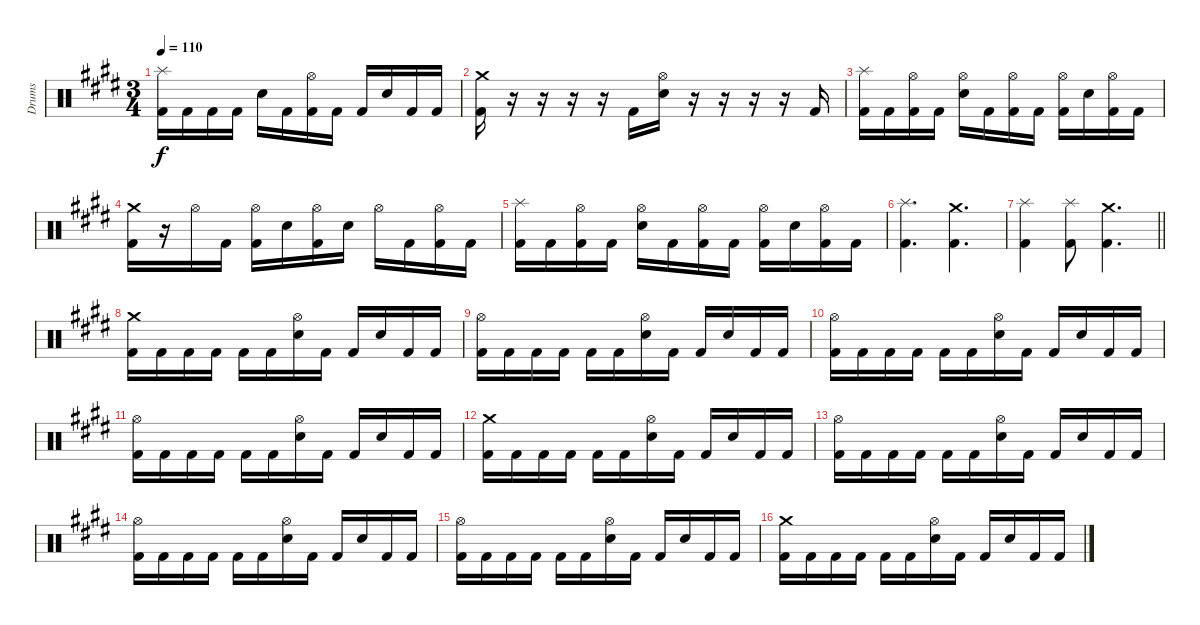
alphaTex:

\track ("Drums" "Drums") {instrument percussion}
\staff {score}
\articulation defaults
\ts (3 4)
\tempo 110
\clef neutral
\ks c#minor
("Kick (hit) 2" "Splash (hit)").16{dy f} "Kick (hit) 2".16 "Kick (hit) 2".16 "Kick (hit) 2".16 "Electric Snare (hit)".16 "Kick (hit) 2".16 ("Kick (hit) 2" "Hi-Hat (open)").16 "Kick (hit) 2".16 "Kick (hit) 2".16 "Electric Snare (hit)".16 "Kick (hit) 2".16 "Kick (hit) 2".16 |
("Kick (hit) 2" "Crash medium (hit)").16 r.16 r.16 r.16 r.16 "Kick (hit) 2".16 ("Electric Snare (hit)" "Hi-Hat (open)").16 r.16 r.16 r.16 r.16 "Kick (hit) 2".16 |
("Kick (hit) 2" "Splash (hit)").16 "Kick (hit) 2".16 ("Kick (hit) 2" "Hi-Hat (open)").16 "Kick (hit) 2".16 ("Electric Snare (hit)" "Hi-Hat (open)").16 "Kick (hit) 2".16 ("Kick (hit) 2" "Hi-Hat (open)").16 "Kick (hit) 2".16 ("Kick (hit) 2" "Hi-Hat (open)").16 "Electric Snare (hit)".16 ("Kick (hit) 2" "Hi-Hat (open)").16 "Kick (hit) 2".16 |
("Kick (hit) 2" "Crash medium (hit)").16 r.16 "Hi-Hat (open)".16 "Kick (hit) 2".16 ("Kick (hit) 2" "Hi-Hat (open)").16 "Electric Snare (hit)".16 ("Kick (hit) 2" "Hi-Hat (open)").16 "Electric Snare (hit)".16 "Hi-Hat (open)".16 "Kick (hit) 2".16 ("Kick (hit) 2" "Hi-Hat (open)").16 "Kick (hit) 2".16 |
("Kick (hit) 2" "Splash (hit)").16 "Kick (hit) 2".16 ("Kick (hit) 2" "Hi-Hat (open)").16 "Kick (hit) 2".16 ("Electric Snare (hit)" "Hi-Hat (open)").16 "Kick (hit) 2".16 ("Kick (hit) 2" "Hi-Hat (open)").16 "Kick (hit) 2".16 ("Kick (hit) 2" "Hi-Hat (open)").16 "Electric Snare (hit)".16 ("Kick (hit) 2" "Hi-Hat (open)").16 "Kick (hit) 2".16 |
("Kick (hit) 2" "Splash (hit)").4{d} ("Kick (hit) 2" "Crash medium (hit)").4{d} |
\barLineRight lightlight
("Kick (hit) 2" "Splash (hit)").4 ("Kick (hit) 2" "Splash (hit)").8 ("Kick (hit) 2" "Crash medium (hit)").4{d} |
("Kick (hit) 2" "Crash medium (hit)").16 "Kick (hit) 2".16 "Kick (hit) 2".16 "Kick (hit) 2".16 "Kick (hit) 2".16 "Kick (hit) 2".16 ("Electric Snare (hit)" "Hi-Hat (open)").16 "Kick (hit) 2".16 "Kick (hit) 2".16 "Electric Snare (hit)".16 "Kick (hit) 2".16 "Kick (hit) 2".16 |
("Kick (hit) 2" "Hi-Hat (open)").16 "Kick (hit) 2".16 "Kick (hit) 2".16 "Kick (hit) 2".16 "Kick (hit) 2".16 "Kick (hit) 2".16 ("Electric Snare (hit)" "Hi-Hat (open)").16 "Kick (hit) 2".16 "Kick (hit) 2".16 "Electric Snare (hit)".16 "Kick (hit) 2".16 "Kick (hit) 2".16 |
("Kick (hit) 2" "Hi-Hat (open)").16 "Kick (hit) 2".16 "Kick (hit) 2".16 "Kick (hit) 2".16 "Kick (hit) 2".16 "Kick (hit) 2".16 ("Electric Snare (hit)" "Hi-Hat (open)").16 "Kick (hit) 2".16 "Kick (hit) 2".16 "Electric Snare (hit)".16 "Kick (hit) 2".16 "Kick (hit) 2".16 |
("Kick (hit) 2" "Hi-Hat (open)").16 "Kick (hit) 2".16 "Kick (hit) 2".16 "Kick (hit) 2".16 "Kick (hit) 2".16 "Kick (hit) 2".16 ("Electric Snare (hit)" "Hi-Hat (open)").16 "Kick (hit) 2".16 "Kick (hit) 2".16 "Electric Snare (hit)".16 "Kick (hit) 2".16 "Kick (hit) 2".16 |
("Kick (hit) 2" "Crash medium (hit)").16 "Kick (hit) 2".16 "Kick (hit) 2".16 "Kick (hit) 2".16 "Kick (hit) 2".16 "Kick (hit) 2".16 ("Electric Snare (hit)" "Hi-Hat (open)").16 "Kick (hit) 2".16 "Kick (hit) 2".16 "Electric Snare (hit)".16 "Kick (hit) 2".16 "Kick (hit) 2".16 |
("Kick (hit) 2" "Hi-Hat (open)").16 "Kick (hit) 2".16 "Kick (hit) 2".16 "Kick (hit) 2".16 "Kick (hit) 2".16 "Kick (hit) 2".16 ("Electric Snare (hit)" "Hi-Hat (open)").16 "Kick (hit) 2".16 "Kick (hit) 2".16 "Electric Snare (hit)".16 "Kick (hit) 2".16 "Kick (hit) 2".16 |
("Kick (hit) 2" "Hi-Hat (open)").16 "Kick (hit) 2".16 "Kick (hit) 2".16 "Kick (hit) 2".16 "Kick (hit) 2".16 "Kick (hit) 2".16 ("Electric Snare (hit)" "Hi-Hat (open)").16 "Kick (hit) 2".16 "Kick (hit) 2".16 "Electric Snare (hit)".16 "Kick (hit) 2".16 "Kick (hit) 2".16 |
("Kick (hit) 2" "Hi-Hat (open)").16 "Kick (hit) 2".16 "Kick (hit) 2".16 "Kick (hit) 2".16 "Kick (hit) 2".16 "Kick (hit) 2".16 ("Electric Snare (hit)" "Hi-Hat (open)").16 "Kick (hit) 2".16 "Kick (hit) 2".16 "Electric Snare (hit)".16 "Kick (hit) 2".16 "Kick (hit) 2".16 |
("Kick (hit) 2" "Crash medium (hit)").16 "Kick (hit) 2".16 "Kick (hit) 2".16 "Kick (hit) 2".16 "Kick (hit) 2".16 "Kick (hit) 2".16 ("Electric Snare (hit)" "Hi-Hat (open)").16 "Kick (hit) 2".16 "Kick (hit) 2".16 "Electric Snare (hit)".16 "Kick (hit) 2".16 "Kick (hit) 2".16
